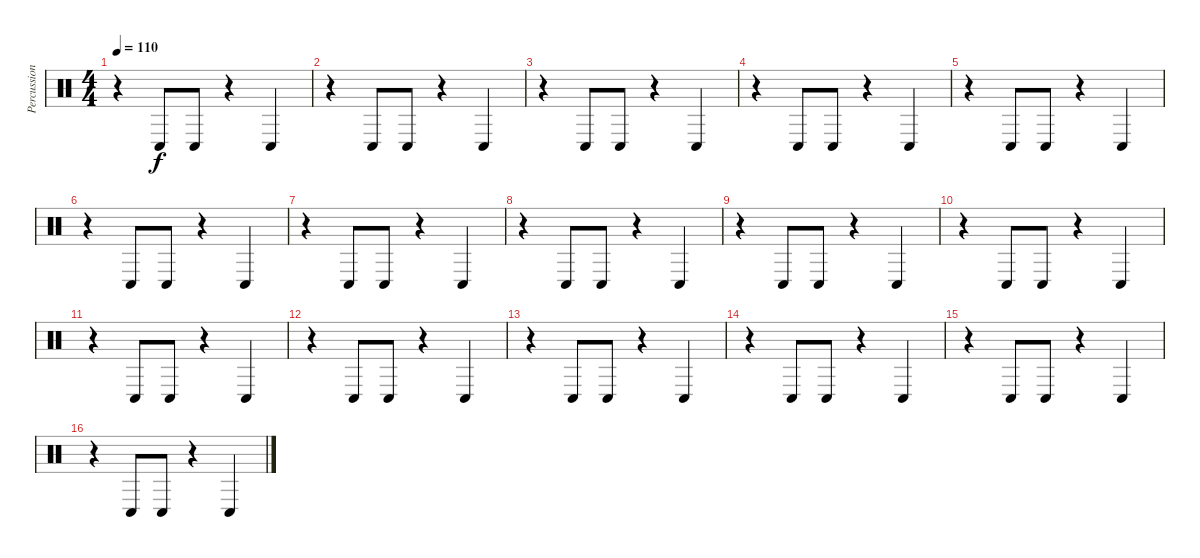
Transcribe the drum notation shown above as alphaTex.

\track ("Percussion" "Percussion") {instrument percussion}
\staff {score}
\articulation defaults
\ts (4 4)
\tempo 110
\clef neutral
\ks c
r.4{dy f} "Conga low (hit)".8 "Conga low (hit)".8 r.4 "Conga low (hit)".4 |
r.4 "Conga low (hit)".8 "Conga low (hit)".8 r.4 "Conga low (hit)".4 |
r.4 "Conga low (hit)".8 "Conga low (hit)".8 r.4 "Conga low (hit)".4 |
r.4 "Conga low (hit)".8 "Conga low (hit)".8 r.4 "Conga low (hit)".4 |
r.4 "Conga low (hit)".8 "Conga low (hit)".8 r.4 "Conga low (hit)".4 |
r.4 "Conga low (hit)".8 "Conga low (hit)".8 r.4 "Conga low (hit)".4 |
r.4 "Conga low (hit)".8 "Conga low (hit)".8 r.4 "Conga low (hit)".4 |
r.4 "Conga low (hit)".8 "Conga low (hit)".8 r.4 "Conga low (hit)".4 |
r.4 "Conga low (hit)".8 "Conga low (hit)".8 r.4 "Conga low (hit)".4 |
r.4 "Conga low (hit)".8 "Conga low (hit)".8 r.4 "Conga low (hit)".4 |
r.4 "Conga low (hit)".8 "Conga low (hit)".8 r.4 "Conga low (hit)".4 |
r.4 "Conga low (hit)".8 "Conga low (hit)".8 r.4 "Conga low (hit)".4 |
r.4 "Conga low (hit)".8 "Conga low (hit)".8 r.4 "Conga low (hit)".4 |
r.4 "Conga low (hit)".8 "Conga low (hit)".8 r.4 "Conga low (hit)".4 |
r.4 "Conga low (hit)".8 "Conga low (hit)".8 r.4 "Conga low (hit)".4 |
r.4 "Conga low (hit)".8 "Conga low (hit)".8 r.4 "Conga low (hit)".4
